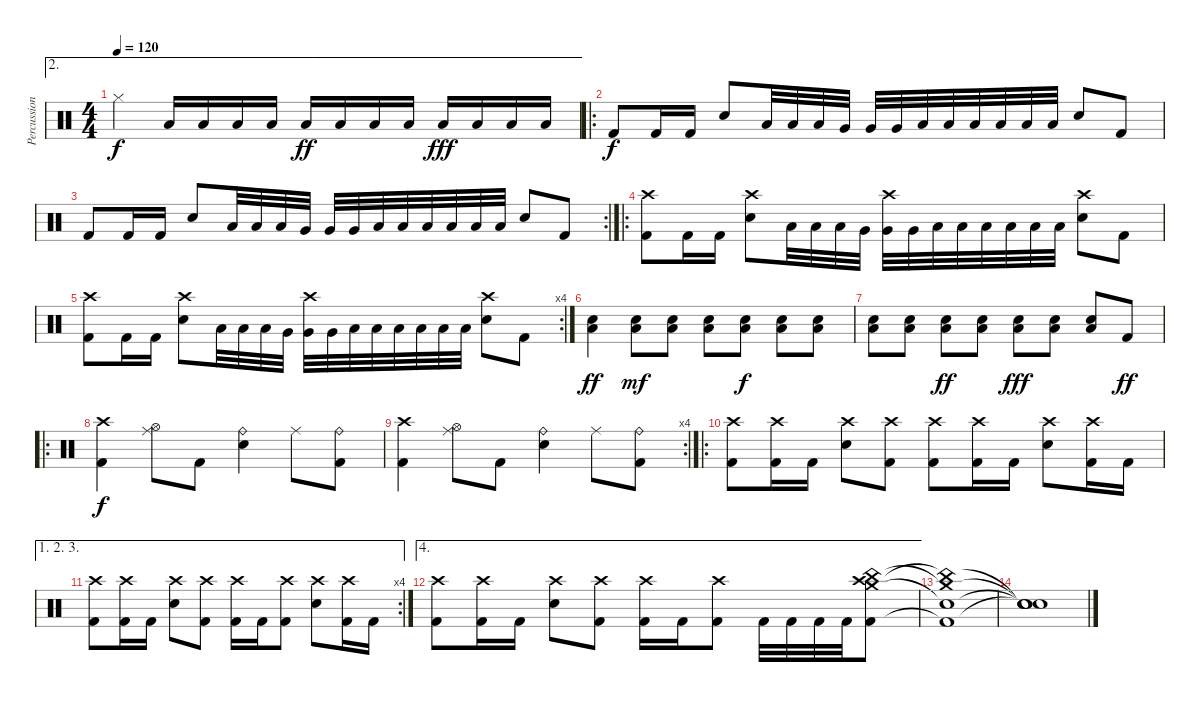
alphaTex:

\track ("Percussion" "Percussion") {instrument percussion}
\staff {score}
\articulation defaults
\ae 2
\ts (4 4)
\tempo 120
\clef neutral
\ks c "Hi-Hat (closed)".4{dy f} "Low Floor Tom (hit)".16 "Low Floor Tom (hit)".16 "Low Floor Tom (hit)".16 "Low Floor Tom (hit)".16 "Low Floor Tom (hit)".16{dy ff} "Low Floor Tom (hit)".16 "Low Floor Tom (hit)".16 "Low Floor Tom (hit)".16 "Low Floor Tom (hit)".16{dy fff} "Low Floor Tom (hit)".16 "Low Floor Tom (hit)".16 "Low Floor Tom (hit)".16
|
\ro "Kick (hit) 2".8{dy f} "Kick (hit) 2".16 "Kick (hit) 2".16 "Electric Snare (hit)".8 "Low Tom (hit)".32 "Low Tom (hit)".32 "Low Tom (hit)".32 "Very Low Tom (hit)".32 "Very Low Tom (hit)".32 "Very Low Tom (hit)".32 "Low Floor Tom (hit)".32 "Low Floor Tom (hit)".32 "Low Floor Tom (hit)".32 "Low Floor Tom (hit)".32 "Low Floor Tom (hit)".32 "Low Floor Tom (hit)".32 "Electric Snare (hit)".8 "Kick (hit) 2".8
|
\rc 2 "Kick (hit) 2".8 "Kick (hit) 2".16 "Kick (hit) 2".16 "Electric Snare (hit)".8 "Low Tom (hit)".32 "Low Tom (hit)".32 "Low Tom (hit)".32 "Very Low Tom (hit)".32 "Very Low Tom (hit)".32 "Very Low Tom (hit)".32 "Low Floor Tom (hit)".32 "Low Floor Tom (hit)".32 "Low Floor Tom (hit)".32 "Low Floor Tom (hit)".32 "Low Floor Tom (hit)".32 "Low Floor Tom (hit)".32 "Electric Snare (hit)".8 "Kick (hit) 2".8
|
\ro
("Crash high (hit)" "Kick (hit) 2").8 "Kick (hit) 2".16 "Kick (hit) 2".16 ("Crash high (hit)" "Electric Snare (hit)").8 "Low Tom (hit)".32 "Low Tom (hit)".32 "Low Tom (hit)".32 "Very Low Tom (hit)".32 ("Crash high (hit)" "Very Low Tom (hit)").32 "Very Low Tom (hit)".32 "Low Floor Tom (hit)".32 "Low Floor Tom (hit)".32 "Low Floor Tom (hit)".32 "Low Floor Tom (hit)".32 "Low Floor Tom (hit)".32 "Low Floor Tom (hit)".32 ("Crash high (hit)" "Electric Snare (hit)").8 "Kick (hit) 2".8 |
\rc 4
("Crash high (hit)" "Kick (hit) 2").8 "Kick (hit) 2".16 "Kick (hit) 2".16 ("Crash high (hit)" "Electric Snare (hit)").8 "Low Tom (hit)".32 "Low Tom (hit)".32 "Low Tom (hit)".32 "Very Low Tom (hit)".32 ("Crash high (hit)" "Very Low Tom (hit)").32 "Very Low Tom (hit)".32 "Low Floor Tom (hit)".32 "Low Floor Tom (hit)".32 "Low Floor Tom (hit)".32 "Low Floor Tom (hit)".32 "Low Floor Tom (hit)".32 "Low Floor Tom (hit)".32 ("Crash high (hit)" "Electric Snare (hit)").8 "Kick (hit) 2".8 |
("Electric Snare (hit)" "Low Floor Tom (hit)").4{dy ff} ("Electric Snare (hit)" "Low Floor Tom (hit)").8{dy mf} ("Electric Snare (hit)" "Low Floor Tom (hit)").8 ("Electric Snare (hit)" "Low Floor Tom (hit)").8 ("Electric Snare (hit)" "Low Floor Tom (hit)").8{dy f} ("Electric Snare (hit)" "Low Floor Tom (hit)").8 ("Electric Snare (hit)" "Low Floor Tom (hit)").8 |
("Electric Snare (hit)" "Low Floor Tom (hit)").8 ("Electric Snare (hit)" "Low Floor Tom (hit)").8 ("Electric Snare (hit)" "Low Floor Tom (hit)").8{dy ff} ("Electric Snare (hit)" "Low Floor Tom (hit)").8 ("Electric Snare (hit)" "Low Floor Tom (hit)").8{dy fff} ("Electric Snare (hit)" "Low Floor Tom (hit)").8 ("Electric Snare (hit)" "Low Floor Tom (hit)").8 "Kick (hit) 2".8{dy ff} |
\ro
("Crash high (hit)" "Kick (hit) 2").4{dy f} ("Ride (middle)" "Hi-Hat (open)").8 "Kick (hit) 2".8 ("Ride (bell)" "Electric Snare (hit)").4 "Ride (middle)".8 ("Ride (bell)" "Kick (hit) 2").8 |
\rc 4
("Crash high (hit)" "Kick (hit) 2").4 ("Ride (middle)" "Hi-Hat (open)").8 "Kick (hit) 2".8 ("Ride (bell)" "Electric Snare (hit)").4 "Ride (middle)".8 ("Ride (bell)" "Kick (hit) 2").8 |
\ro
("Crash high (hit)" "Kick (hit) 2").8 ("Crash high (hit)" "Kick (hit) 2").16 "Kick (hit) 2".16 ("Crash high (hit)" "Electric Snare (hit)").8 ("Crash high (hit)" "Kick (hit) 2").8 ("Crash high (hit)" "Kick (hit) 2").8 ("Crash high (hit)" "Kick (hit) 2").16 "Kick (hit) 2".16 ("Crash high (hit)" "Electric Snare (hit)").8 ("Crash high (hit)" "Kick (hit) 2").16 "Kick (hit) 2".16 |
\ae (1 2 3)
\rc 4
("Crash high (hit)" "Kick (hit) 2").8 ("Crash high (hit)" "Kick (hit) 2").16 "Kick (hit) 2".16 ("Crash high (hit)" "Electric Snare (hit)").8 ("Crash high (hit)" "Kick (hit) 2").8 ("Crash high (hit)" "Kick (hit) 2").16 "Kick (hit) 2".16 ("Crash high (hit)" "Kick (hit) 2").8 ("Crash high (hit)" "Electric Snare (hit)").8 ("Crash high (hit)" "Kick (hit) 2").16 "Kick (hit) 2".16 |
\ae 4
("Crash high (hit)" "Kick (hit) 2").8 ("Crash high (hit)" "Kick (hit) 2").16 "Kick (hit) 2".16 ("Crash high (hit)" "Electric Snare (hit)").8 ("Crash high (hit)" "Kick (hit) 2").8 ("Crash high (hit)" "Kick (hit) 2").16 "Kick (hit) 2".16 ("Crash high (hit)" "Kick (hit) 2").8 "Kick (hit) 2".32 "Kick (hit) 2".32 "Kick (hit) 2".32 "Kick (hit) 2".32 ("Crash high (hit)" "China (hit)" "Crash medium (hit)" "Kick (hit) 2").8 |
("China (hit)"{t} "Crash medium (hit)"{t} "Electric Snare (hit)"{t} "Kick (hit) 2"{t}).1 |
("Snare (hit)"{t} "Snare (hit)"{t} "Snare (hit)"{t} "Snare (hit)"{t}).1
